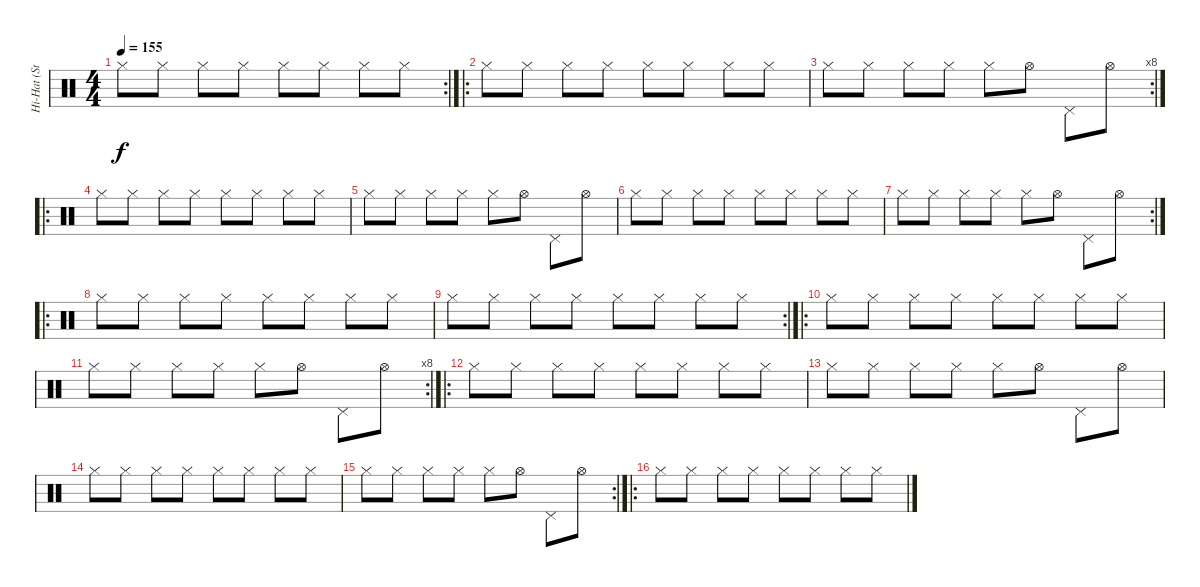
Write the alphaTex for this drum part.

\track ("Hi-Hat (Stephen Morris)" "Hi-Hat (St") {instrument percussion}
\staff {score}
\articulation defaults
\rc 2
\ts (4 4)
\tempo 155
\clef neutral
\ks c "Hi-Hat (closed)".8{dy f} "Hi-Hat (closed)".8 "Hi-Hat (closed)".8 "Hi-Hat (closed)".8 "Hi-Hat (closed)".8 "Hi-Hat (closed)".8 "Hi-Hat (closed)".8 "Hi-Hat (closed)".8
|
\ro "Hi-Hat (closed)".8 "Hi-Hat (closed)".8 "Hi-Hat (closed)".8 "Hi-Hat (closed)".8 "Hi-Hat (closed)".8 "Hi-Hat (closed)".8 "Hi-Hat (closed)".8 "Hi-Hat (closed)".8
|
\rc 8 "Hi-Hat (closed)".8 "Hi-Hat (closed)".8 "Hi-Hat (closed)".8 "Hi-Hat (closed)".8 "Hi-Hat (closed)".8 "Hi-Hat (open)".8 "Pedal Hi-Hat (hit)".8 "Hi-Hat (open)".8
|
\ro "Hi-Hat (closed)".8 "Hi-Hat (closed)".8 "Hi-Hat (closed)".8 "Hi-Hat (closed)".8 "Hi-Hat (closed)".8 "Hi-Hat (closed)".8 "Hi-Hat (closed)".8 "Hi-Hat (closed)".8
|
"Hi-Hat (closed)".8 "Hi-Hat (closed)".8 "Hi-Hat (closed)".8 "Hi-Hat (closed)".8 "Hi-Hat (closed)".8 "Hi-Hat (open)".8 "Pedal Hi-Hat (hit)".8 "Hi-Hat (open)".8 |
"Hi-Hat (closed)".8 "Hi-Hat (closed)".8 "Hi-Hat (closed)".8 "Hi-Hat (closed)".8 "Hi-Hat (closed)".8 "Hi-Hat (closed)".8 "Hi-Hat (closed)".8 "Hi-Hat (closed)".8 |
\rc 2 "Hi-Hat (closed)".8 "Hi-Hat (closed)".8 "Hi-Hat (closed)".8 "Hi-Hat (closed)".8 "Hi-Hat (closed)".8 "Hi-Hat (open)".8 "Pedal Hi-Hat (hit)".8 "Hi-Hat (open)".8
|
\ro "Hi-Hat (closed)".8 "Hi-Hat (closed)".8 "Hi-Hat (closed)".8 "Hi-Hat (closed)".8 "Hi-Hat (closed)".8 "Hi-Hat (closed)".8 "Hi-Hat (closed)".8 "Hi-Hat (closed)".8
|
\rc 2 "Hi-Hat (closed)".8 "Hi-Hat (closed)".8 "Hi-Hat (closed)".8 "Hi-Hat (closed)".8 "Hi-Hat (closed)".8 "Hi-Hat (closed)".8 "Hi-Hat (closed)".8 "Hi-Hat (closed)".8
|
\ro "Hi-Hat (closed)".8 "Hi-Hat (closed)".8 "Hi-Hat (closed)".8 "Hi-Hat (closed)".8 "Hi-Hat (closed)".8 "Hi-Hat (closed)".8 "Hi-Hat (closed)".8 "Hi-Hat (closed)".8
|
\rc 8 "Hi-Hat (closed)".8 "Hi-Hat (closed)".8 "Hi-Hat (closed)".8 "Hi-Hat (closed)".8 "Hi-Hat (closed)".8 "Hi-Hat (open)".8 "Pedal Hi-Hat (hit)".8 "Hi-Hat (open)".8
|
\ro "Hi-Hat (closed)".8 "Hi-Hat (closed)".8 "Hi-Hat (closed)".8 "Hi-Hat (closed)".8 "Hi-Hat (closed)".8 "Hi-Hat (closed)".8 "Hi-Hat (closed)".8 "Hi-Hat (closed)".8
|
"Hi-Hat (closed)".8 "Hi-Hat (closed)".8 "Hi-Hat (closed)".8 "Hi-Hat (closed)".8 "Hi-Hat (closed)".8 "Hi-Hat (open)".8 "Pedal Hi-Hat (hit)".8 "Hi-Hat (open)".8 |
"Hi-Hat (closed)".8 "Hi-Hat (closed)".8 "Hi-Hat (closed)".8 "Hi-Hat (closed)".8 "Hi-Hat (closed)".8 "Hi-Hat (closed)".8 "Hi-Hat (closed)".8 "Hi-Hat (closed)".8 |
\rc 2 "Hi-Hat (closed)".8 "Hi-Hat (closed)".8 "Hi-Hat (closed)".8 "Hi-Hat (closed)".8 "Hi-Hat (closed)".8 "Hi-Hat (open)".8 "Pedal Hi-Hat (hit)".8 "Hi-Hat (open)".8
|
\ro "Hi-Hat (closed)".8 "Hi-Hat (closed)".8 "Hi-Hat (closed)".8 "Hi-Hat (closed)".8 "Hi-Hat (closed)".8 "Hi-Hat (closed)".8 "Hi-Hat (closed)".8 "Hi-Hat (closed)".8
